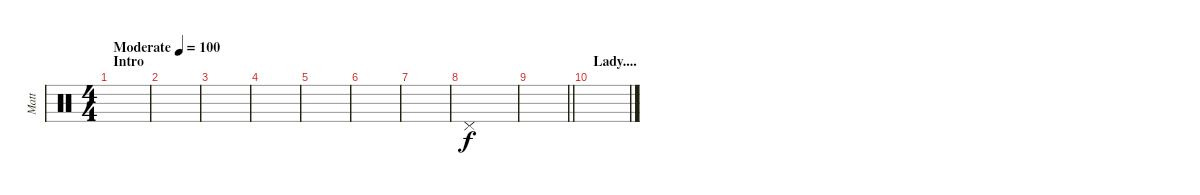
\track ("Matt" "Matt") {instrument percussion}
\staff {score}
\articulation defaults
\ts (4 4)
\section ("" "Intro")
\tempo (100 "Moderate")
\clef neutral
\ks c
|
|
|
|
|
|
|
"Pedal Hi-Hat (hit)".1 |
\barLineRight lightlight
|
\section ("" "Lady....")
